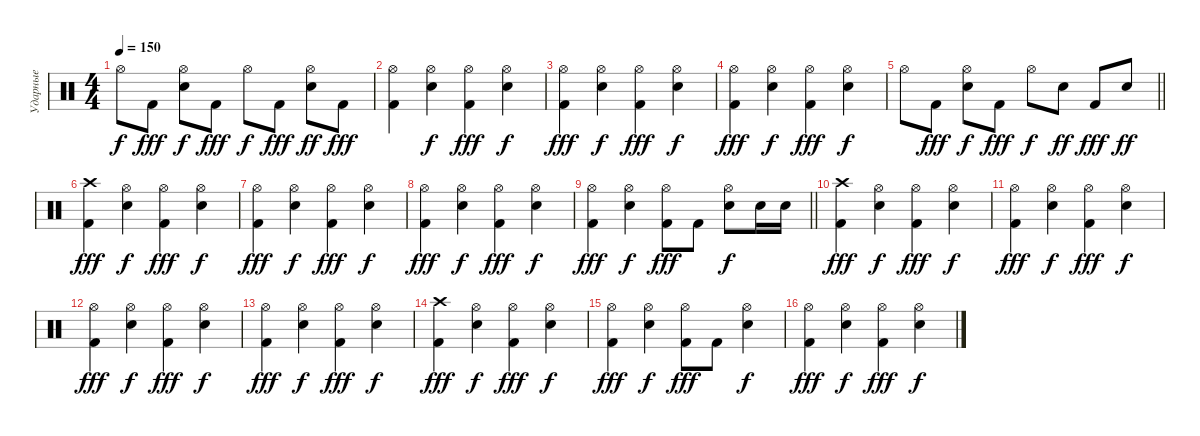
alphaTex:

\track ("Ударные" "Ударные") {instrument percussion}
\staff {score}
\articulation defaults
\ts (4 4)
\tempo 150
\clef neutral
\ks c "Hi-Hat (open)".8{dy f} "Kick (hit) 2".8{dy fff}
("Snare (hit) 2" "Hi-Hat (open)").8{dy f} "Kick (hit) 2".8{dy fff} "Hi-Hat (open)".8{dy f} "Kick (hit) 2".8{dy fff} ("Snare (hit) 2" "Hi-Hat (open)").8{dy ff} "Kick (hit) 2".8{dy fff} |
("Kick (hit) 2" "Hi-Hat (open)").4 ("Snare (hit) 2" "Hi-Hat (open)").4{dy f} ("Kick (hit) 2" "Hi-Hat (open)").4{dy fff} ("Snare (hit) 2" "Hi-Hat (open)").4{dy f} |
("Kick (hit) 2" "Hi-Hat (open)").4{dy fff} ("Snare (hit) 2" "Hi-Hat (open)").4{dy f} ("Kick (hit) 2" "Hi-Hat (open)").4{dy fff} ("Snare (hit) 2" "Hi-Hat (open)").4{dy f} |
("Kick (hit) 2" "Hi-Hat (open)").4{dy fff} ("Snare (hit) 2" "Hi-Hat (open)").4{dy f} ("Kick (hit) 2" "Hi-Hat (open)").4{dy fff} ("Snare (hit) 2" "Hi-Hat (open)").4{dy f} |
\barLineRight lightlight "Hi-Hat (open)".8 "Kick (hit) 2".8{dy fff}
("Snare (hit) 2" "Hi-Hat (open)").8{dy f} "Kick (hit) 2".8{dy fff} "Hi-Hat (open)".8{dy f} "Snare (hit) 2".8{dy ff} "Kick (hit) 2".8{dy fff} "Snare (hit) 2".8{dy ff} |
("Kick (hit) 2" "Crash high (hit)").4{dy fff} ("Snare (hit) 2" "Hi-Hat (open)").4{dy f} ("Kick (hit) 2" "Hi-Hat (open)").4{dy fff} ("Snare (hit) 2" "Hi-Hat (open)").4{dy f} |
("Kick (hit) 2" "Hi-Hat (open)").4{dy fff} ("Snare (hit) 2" "Hi-Hat (open)").4{dy f} ("Kick (hit) 2" "Hi-Hat (open)").4{dy fff} ("Snare (hit) 2" "Hi-Hat (open)").4{dy f} |
("Kick (hit) 2" "Hi-Hat (open)").4{dy fff} ("Snare (hit) 2" "Hi-Hat (open)").4{dy f} ("Kick (hit) 2" "Hi-Hat (open)").4{dy fff} ("Snare (hit) 2" "Hi-Hat (open)").4{dy f} |
\barLineRight lightlight
("Kick (hit) 2" "Hi-Hat (open)").4{dy fff} ("Snare (hit) 2" "Hi-Hat (open)").4{dy f} ("Kick (hit) 2" "Hi-Hat (open)").8{dy fff} "Kick (hit) 2".8 ("Snare (hit) 2" "Hi-Hat (open)").8{dy f} "Snare (hit) 2".16 "Snare (hit) 2".16 |
("Kick (hit) 2" "Crash high (hit)").4{dy fff} ("Snare (hit) 2" "Hi-Hat (open)").4{dy f} ("Kick (hit) 2" "Hi-Hat (open)").4{dy fff} ("Snare (hit) 2" "Hi-Hat (open)").4{dy f} |
("Kick (hit) 2" "Hi-Hat (open)").4{dy fff} ("Snare (hit) 2" "Hi-Hat (open)").4{dy f} ("Kick (hit) 2" "Hi-Hat (open)").4{dy fff} ("Snare (hit) 2" "Hi-Hat (open)").4{dy f} |
("Kick (hit) 2" "Hi-Hat (open)").4{dy fff} ("Snare (hit) 2" "Hi-Hat (open)").4{dy f} ("Kick (hit) 2" "Hi-Hat (open)").4{dy fff} ("Snare (hit) 2" "Hi-Hat (open)").4{dy f} |
("Kick (hit) 2" "Hi-Hat (open)").4{dy fff} ("Snare (hit) 2" "Hi-Hat (open)").4{dy f} ("Kick (hit) 2" "Hi-Hat (open)").4{dy fff} ("Snare (hit) 2" "Hi-Hat (open)").4{dy f} |
("Kick (hit) 2" "Crash high (hit)").4{dy fff} ("Snare (hit) 2" "Hi-Hat (open)").4{dy f} ("Kick (hit) 2" "Hi-Hat (open)").4{dy fff} ("Snare (hit) 2" "Hi-Hat (open)").4{dy f} |
("Kick (hit) 2" "Hi-Hat (open)").4{dy fff} ("Snare (hit) 2" "Hi-Hat (open)").4{dy f} ("Kick (hit) 2" "Hi-Hat (open)").8{dy fff} "Kick (hit) 2".8 ("Snare (hit) 2" "Hi-Hat (open)").4{dy f} |
("Kick (hit) 2" "Hi-Hat (open)").4{dy fff} ("Snare (hit) 2" "Hi-Hat (open)").4{dy f} ("Kick (hit) 2" "Hi-Hat (open)").4{dy fff} ("Snare (hit) 2" "Hi-Hat (open)").4{dy f}
